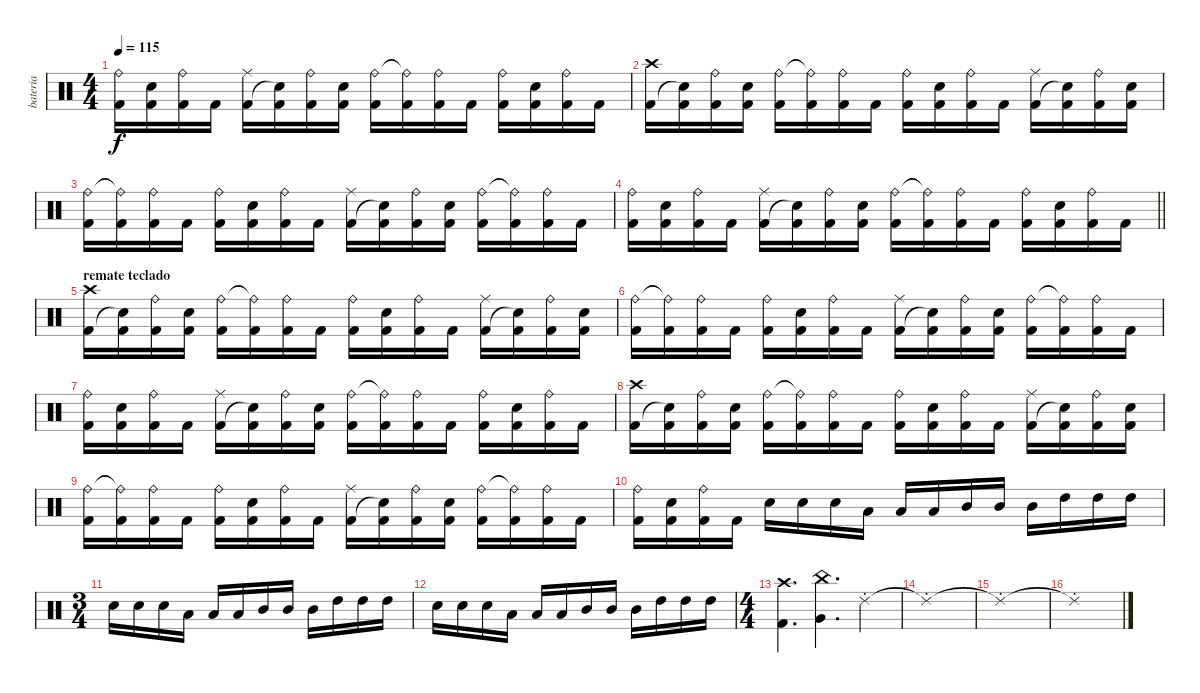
\track ("bateria" "bateria") {mute instrument percussion}
\staff {score}
\articulation defaults
\ts (4 4)
\tempo 115
\clef neutral
\ks c
("Ride (bell)" "Kick (hit) 2").16{dy f} ("Electric Snare (hit)" "Kick (hit) 2").16 ("Kick (hit) 2" "Ride (bell)").16 "Kick (hit) 2".16 ("Ride (middle)" "Kick (hit) 2").16 ("Kick (hit) 2" "Snare (hit)"{t}).16 ("Ride (bell)" "Kick (hit) 2").16 ("Electric Snare (hit)" "Kick (hit) 2").16 ("Ride (bell)" "Kick (hit) 2").16 ("Ride (bell)"{t} "Kick (hit) 2").16 ("Kick (hit) 2" "Ride (bell)").16 "Kick (hit) 2".16 ("Kick (hit) 2" "Ride (bell)").16 ("Kick (hit) 2" "Electric Snare (hit)").16 ("Kick (hit) 2" "Ride (bell)").16 "Kick (hit) 2".16 |
("Crash high (hit)" "Kick (hit) 2").16 ("Kick (hit) 2" "Snare (hit)"{t}).16 ("Ride (bell)" "Kick (hit) 2").16 ("Electric Snare (hit)" "Kick (hit) 2").16 ("Ride (bell)" "Kick (hit) 2").16 ("Ride (bell)"{t} "Kick (hit) 2").16 ("Kick (hit) 2" "Ride (bell)").16 "Kick (hit) 2".16 ("Ride (bell)" "Kick (hit) 2").16 ("Electric Snare (hit)" "Kick (hit) 2").16 ("Kick (hit) 2" "Ride (bell)").16 "Kick (hit) 2".16 ("Ride (middle)" "Kick (hit) 2").16 ("Kick (hit) 2" "Snare (hit)"{t}).16 ("Ride (bell)" "Kick (hit) 2").16 ("Electric Snare (hit)" "Kick (hit) 2").16 |
("Ride (bell)" "Kick (hit) 2").16 ("Ride (bell)"{t} "Kick (hit) 2").16 ("Kick (hit) 2" "Ride (bell)").16 "Kick (hit) 2".16 ("Ride (bell)" "Kick (hit) 2").16 ("Electric Snare (hit)" "Kick (hit) 2").16 ("Kick (hit) 2" "Ride (bell)").16 "Kick (hit) 2".16 ("Ride (middle)" "Kick (hit) 2").16 ("Kick (hit) 2" "Snare (hit)"{t}).16 ("Ride (bell)" "Kick (hit) 2").16 ("Electric Snare (hit)" "Kick (hit) 2").16 ("Ride (bell)" "Kick (hit) 2").16 ("Ride (bell)"{t} "Kick (hit) 2").16 ("Kick (hit) 2" "Ride (bell)").16 "Kick (hit) 2".16 |
\barLineRight lightlight
("Ride (bell)" "Kick (hit) 2").16 ("Electric Snare (hit)" "Kick (hit) 2").16 ("Kick (hit) 2" "Ride (bell)").16 "Kick (hit) 2".16 ("Ride (middle)" "Kick (hit) 2").16 ("Kick (hit) 2" "Snare (hit)"{t}).16 ("Ride (bell)" "Kick (hit) 2").16 ("Electric Snare (hit)" "Kick (hit) 2").16 ("Ride (bell)" "Kick (hit) 2").16 ("Ride (bell)"{t} "Kick (hit) 2").16 ("Kick (hit) 2" "Ride (bell)").16 "Kick (hit) 2".16 ("Kick (hit) 2" "Ride (bell)").16 ("Kick (hit) 2" "Electric Snare (hit)").16 ("Kick (hit) 2" "Ride (bell)").16 "Kick (hit) 2".16 |
\section ("" "remate teclado")
("Crash high (hit)" "Kick (hit) 2").16 ("Kick (hit) 2" "Snare (hit)"{t}).16 ("Ride (bell)" "Kick (hit) 2").16 ("Electric Snare (hit)" "Kick (hit) 2").16 ("Ride (bell)" "Kick (hit) 2").16 ("Ride (bell)"{t} "Kick (hit) 2").16 ("Kick (hit) 2" "Ride (bell)").16 "Kick (hit) 2".16 ("Ride (bell)" "Kick (hit) 2").16 ("Electric Snare (hit)" "Kick (hit) 2").16 ("Kick (hit) 2" "Ride (bell)").16 "Kick (hit) 2".16 ("Ride (middle)" "Kick (hit) 2").16 ("Kick (hit) 2" "Snare (hit)"{t}).16 ("Ride (bell)" "Kick (hit) 2").16 ("Electric Snare (hit)" "Kick (hit) 2").16 |
("Ride (bell)" "Kick (hit) 2").16 ("Ride (bell)"{t} "Kick (hit) 2").16 ("Kick (hit) 2" "Ride (bell)").16 "Kick (hit) 2".16 ("Ride (bell)" "Kick (hit) 2").16 ("Electric Snare (hit)" "Kick (hit) 2").16 ("Kick (hit) 2" "Ride (bell)").16 "Kick (hit) 2".16 ("Ride (middle)" "Kick (hit) 2").16 ("Kick (hit) 2" "Snare (hit)"{t}).16 ("Ride (bell)" "Kick (hit) 2").16 ("Electric Snare (hit)" "Kick (hit) 2").16 ("Ride (bell)" "Kick (hit) 2").16 ("Ride (bell)"{t} "Kick (hit) 2").16 ("Kick (hit) 2" "Ride (bell)").16 "Kick (hit) 2".16 |
("Ride (bell)" "Kick (hit) 2").16 ("Electric Snare (hit)" "Kick (hit) 2").16 ("Kick (hit) 2" "Ride (bell)").16 "Kick (hit) 2".16 ("Ride (middle)" "Kick (hit) 2").16 ("Kick (hit) 2" "Snare (hit)"{t}).16 ("Ride (bell)" "Kick (hit) 2").16 ("Electric Snare (hit)" "Kick (hit) 2").16 ("Ride (bell)" "Kick (hit) 2").16 ("Ride (bell)"{t} "Kick (hit) 2").16 ("Kick (hit) 2" "Ride (bell)").16 "Kick (hit) 2".16 ("Kick (hit) 2" "Ride (bell)").16 ("Kick (hit) 2" "Electric Snare (hit)").16 ("Kick (hit) 2" "Ride (bell)").16 "Kick (hit) 2".16 |
("Crash high (hit)" "Kick (hit) 2").16 ("Kick (hit) 2" "Snare (hit)"{t}).16 ("Ride (bell)" "Kick (hit) 2").16 ("Electric Snare (hit)" "Kick (hit) 2").16 ("Ride (bell)" "Kick (hit) 2").16 ("Ride (bell)"{t} "Kick (hit) 2").16 ("Kick (hit) 2" "Ride (bell)").16 "Kick (hit) 2".16 ("Ride (bell)" "Kick (hit) 2").16 ("Electric Snare (hit)" "Kick (hit) 2").16 ("Kick (hit) 2" "Ride (bell)").16 "Kick (hit) 2".16 ("Ride (middle)" "Kick (hit) 2").16 ("Kick (hit) 2" "Snare (hit)"{t}).16 ("Ride (bell)" "Kick (hit) 2").16 ("Electric Snare (hit)" "Kick (hit) 2").16 |
("Ride (bell)" "Kick (hit) 2").16 ("Ride (bell)"{t} "Kick (hit) 2").16 ("Kick (hit) 2" "Ride (bell)").16 "Kick (hit) 2".16 ("Ride (bell)" "Kick (hit) 2").16 ("Electric Snare (hit)" "Kick (hit) 2").16 ("Kick (hit) 2" "Ride (bell)").16 "Kick (hit) 2".16 ("Ride (middle)" "Kick (hit) 2").16 ("Kick (hit) 2" "Snare (hit)"{t}).16 ("Ride (bell)" "Kick (hit) 2").16 ("Electric Snare (hit)" "Kick (hit) 2").16 ("Ride (bell)" "Kick (hit) 2").16 ("Ride (bell)"{t} "Kick (hit) 2").16 ("Kick (hit) 2" "Ride (bell)").16 "Kick (hit) 2".16 |
("Ride (bell)" "Kick (hit) 2").16 ("Electric Snare (hit)" "Kick (hit) 2").16 ("Kick (hit) 2" "Ride (bell)").16 "Kick (hit) 2".16 "Snare (hit) 2".16 "Snare (hit) 2".16 "Snare (hit) 2".16 "Low Tom (hit)".16 "Low Tom (hit)".16 "Low Tom (hit)".16 "Mid Tom (hit)".16 "Mid Tom (hit)".16 "Mid Tom (hit)".16 "High Tom (hit)".16 "High Tom (hit)".16 "High Tom (hit)".16 |
\ts (3 4)
"Snare (hit) 2".16 "Snare (hit) 2".16 "Snare (hit) 2".16 "Low Tom (hit)".16 "Low Tom (hit)".16 "Low Tom (hit)".16 "Mid Tom (hit)".16 "Mid Tom (hit)".16 "Mid Tom (hit)".16 "High Tom (hit)".16 "High Tom (hit)".16 "High Tom (hit)".16 |
"Snare (hit) 2".16 "Snare (hit) 2".16 "Snare (hit) 2".16 "Low Tom (hit)".16 "Low Tom (hit)".16 "Low Tom (hit)".16 "Mid Tom (hit)".16 "Mid Tom (hit)".16 "Mid Tom (hit)".16 "High Tom (hit)".16 "High Tom (hit)".16 "High Tom (hit)".16 |
\ts (4 4)
("Crash high (hit)" "Kick (hit) 2").4{d} ("China (hit)" "Very Low Tom (hit)").4{d} "Ride (choke) 2".4 |
"Ride (choke) 2"{t}.1 |
"Ride (choke) 2"{t}.1 |
"Ride (choke) 2"{t}.1
